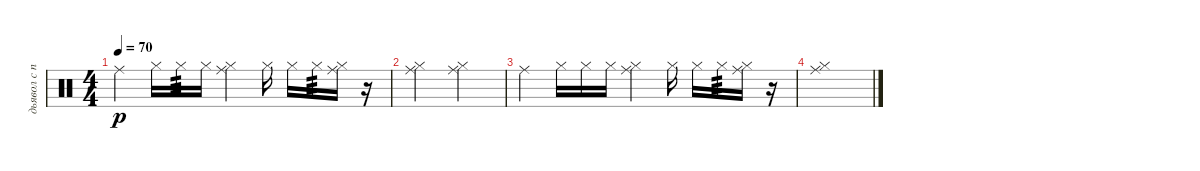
\track ("дьявол с палками" "дьявол с п") {instrument percussion}
\staff {score}
\articulation defaults
\ts (4 4)
\tempo 70
\clef neutral
\ks c "Ride (middle)".4{dy p} "Hi-Hat (closed)".16 "Hi-Hat (closed)".16{tp 3} "Hi-Hat (closed)".16
("Hi-Hat (closed)" "Ride (middle)").4 "Hi-Hat (closed)".16 "Hi-Hat (closed)".16 "Hi-Hat (closed)".16{tp 3} ("Hi-Hat (closed)" "Ride (middle)").16 r.16 |
("Ride (middle)" "Hi-Hat (closed)").2 ("Hi-Hat (closed)" "Ride (middle)").2 |
"Ride (middle)".4 "Hi-Hat (closed)".16 "Hi-Hat (closed)".16 "Hi-Hat (closed)".16 ("Hi-Hat (closed)" "Ride (middle)").4 "Hi-Hat (closed)".16 "Hi-Hat (closed)".16 "Hi-Hat (closed)".16{tp 3} ("Hi-Hat (closed)" "Ride (middle)").16 r.16 |
("Ride (middle)" "Hi-Hat (closed)").1
